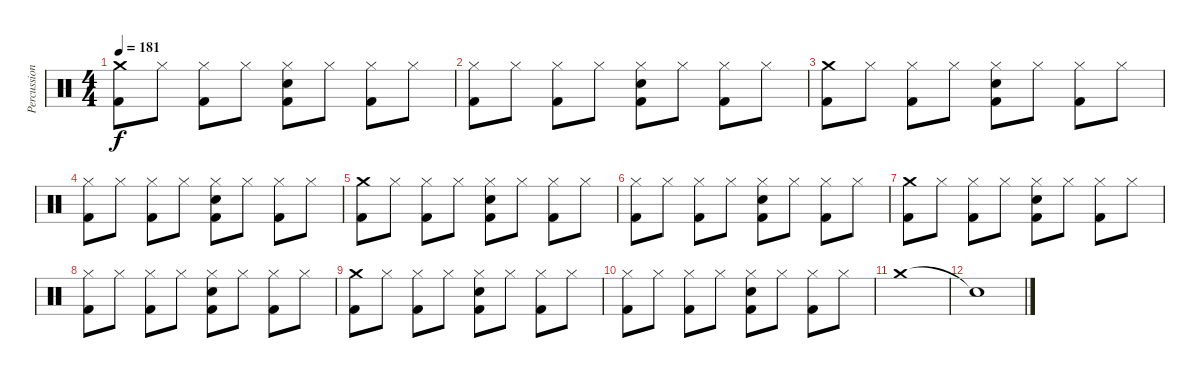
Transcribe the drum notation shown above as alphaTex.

\track ("Percussion" "Percussion") {instrument percussion}
\staff {score}
\articulation defaults
\ts (4 4)
\tempo 181
\clef neutral
\ks c
("Crash medium (hit)" "Kick (hit) 2").8{dy f} "Hi-Hat (closed)".8 ("Hi-Hat (closed)" "Kick (hit) 2").8 "Hi-Hat (closed)".8 ("Hi-Hat (closed)" "Electric Snare (hit)" "Kick (hit) 2").8 "Hi-Hat (closed)".8 ("Hi-Hat (closed)" "Kick (hit) 2").8 "Hi-Hat (closed)".8 |
("Hi-Hat (closed)" "Kick (hit) 2").8 "Hi-Hat (closed)".8 ("Hi-Hat (closed)" "Kick (hit) 2").8 "Hi-Hat (closed)".8 ("Hi-Hat (closed)" "Electric Snare (hit)" "Kick (hit) 2").8 "Hi-Hat (closed)".8 ("Hi-Hat (closed)" "Kick (hit) 2").8 "Hi-Hat (closed)".8 |
("Crash medium (hit)" "Kick (hit) 2").8 "Hi-Hat (closed)".8 ("Hi-Hat (closed)" "Kick (hit) 2").8 "Hi-Hat (closed)".8 ("Hi-Hat (closed)" "Electric Snare (hit)" "Kick (hit) 2").8 "Hi-Hat (closed)".8 ("Hi-Hat (closed)" "Kick (hit) 2").8 "Hi-Hat (closed)".8 |
("Hi-Hat (closed)" "Kick (hit) 2").8 "Hi-Hat (closed)".8 ("Hi-Hat (closed)" "Kick (hit) 2").8 "Hi-Hat (closed)".8 ("Hi-Hat (closed)" "Electric Snare (hit)" "Kick (hit) 2").8 "Hi-Hat (closed)".8 ("Hi-Hat (closed)" "Kick (hit) 2").8 "Hi-Hat (closed)".8 |
("Crash medium (hit)" "Kick (hit) 2").8 "Hi-Hat (closed)".8 ("Hi-Hat (closed)" "Kick (hit) 2").8 "Hi-Hat (closed)".8 ("Hi-Hat (closed)" "Electric Snare (hit)" "Kick (hit) 2").8 "Hi-Hat (closed)".8 ("Hi-Hat (closed)" "Kick (hit) 2").8 "Hi-Hat (closed)".8 |
("Hi-Hat (closed)" "Kick (hit) 2").8 "Hi-Hat (closed)".8 ("Hi-Hat (closed)" "Kick (hit) 2").8 "Hi-Hat (closed)".8 ("Hi-Hat (closed)" "Electric Snare (hit)" "Kick (hit) 2").8 "Hi-Hat (closed)".8 ("Hi-Hat (closed)" "Kick (hit) 2").8 "Hi-Hat (closed)".8 |
("Crash medium (hit)" "Kick (hit) 2").8 "Hi-Hat (closed)".8 ("Hi-Hat (closed)" "Kick (hit) 2").8 "Hi-Hat (closed)".8 ("Hi-Hat (closed)" "Electric Snare (hit)" "Kick (hit) 2").8 "Hi-Hat (closed)".8 ("Hi-Hat (closed)" "Kick (hit) 2").8 "Hi-Hat (closed)".8 |
("Hi-Hat (closed)" "Kick (hit) 2").8 "Hi-Hat (closed)".8 ("Hi-Hat (closed)" "Kick (hit) 2").8 "Hi-Hat (closed)".8 ("Hi-Hat (closed)" "Electric Snare (hit)" "Kick (hit) 2").8 "Hi-Hat (closed)".8 ("Hi-Hat (closed)" "Kick (hit) 2").8 "Hi-Hat (closed)".8 |
("Crash medium (hit)" "Kick (hit) 2").8 "Hi-Hat (closed)".8 ("Hi-Hat (closed)" "Kick (hit) 2").8 "Hi-Hat (closed)".8 ("Hi-Hat (closed)" "Electric Snare (hit)" "Kick (hit) 2").8 "Hi-Hat (closed)".8 ("Hi-Hat (closed)" "Kick (hit) 2").8 "Hi-Hat (closed)".8 |
("Hi-Hat (closed)" "Kick (hit) 2").8 "Hi-Hat (closed)".8 ("Hi-Hat (closed)" "Kick (hit) 2").8 "Hi-Hat (closed)".8 ("Hi-Hat (closed)" "Electric Snare (hit)" "Kick (hit) 2").8 "Hi-Hat (closed)".8 ("Hi-Hat (closed)" "Kick (hit) 2").8 "Hi-Hat (closed)".8 |
"Crash medium (hit)".1 |
"Snare (hit)"{t}.1
